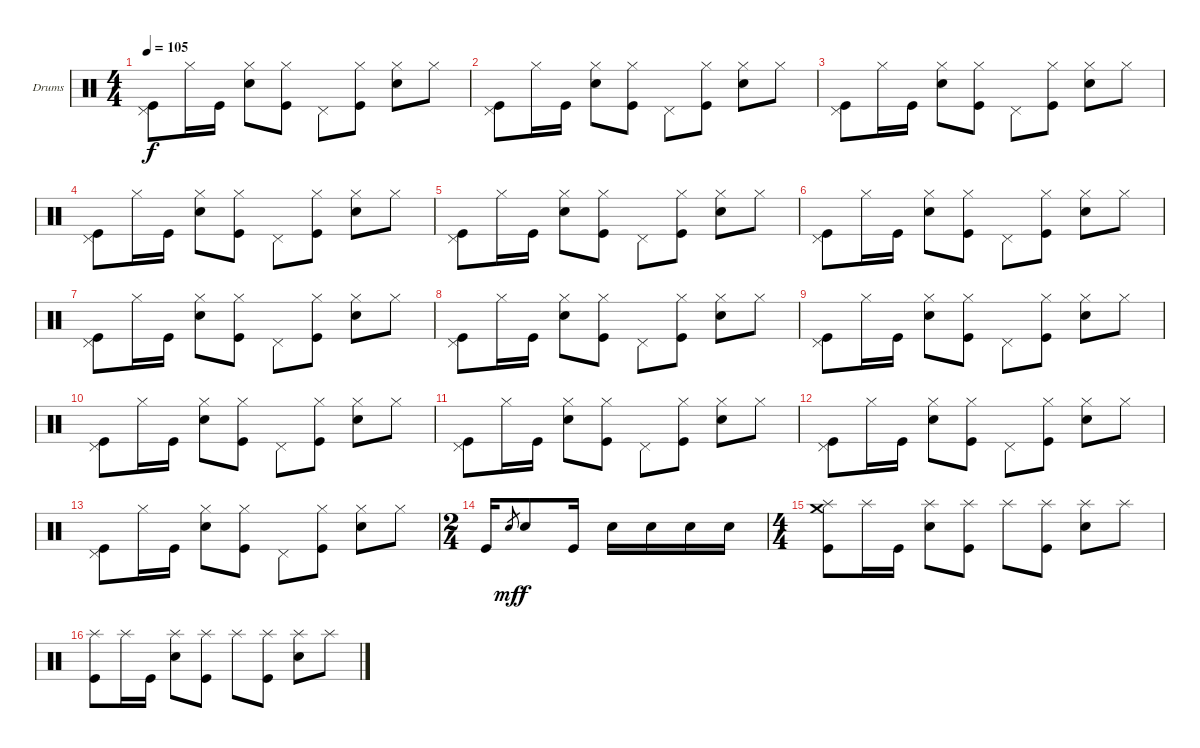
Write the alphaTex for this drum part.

\defaultSystemsLayout 4
\bracketExtendMode nobrackets
\firstSystemTrackNameOrientation horizontal
\otherSystemsTrackNameOrientation horizontal
\track ("Dave Krusen" "Drums") {instrument percussion}
\staff {score}
\articulation defaults
\ts (4 4)
\tempo 105
\clef neutral
\ks c
("Kick (hit)" "Pedal Hi-Hat (hit)").8{dy f} "Hi-Hat (closed)".16 "Kick (hit)".16 ("Snare (hit) 2" "Hi-Hat (closed)").8 ("Kick (hit)" "Hi-Hat (closed)").8 "Pedal Hi-Hat (hit)".8 ("Kick (hit)" "Hi-Hat (closed)").8 ("Snare (hit) 2" "Hi-Hat (closed)").8 "Hi-Hat (closed)".8 |
("Kick (hit)" "Pedal Hi-Hat (hit)").8 "Hi-Hat (closed)".16 "Kick (hit)".16 ("Snare (hit) 2" "Hi-Hat (closed)").8 ("Kick (hit)" "Hi-Hat (closed)").8 "Pedal Hi-Hat (hit)".8 ("Kick (hit)" "Hi-Hat (closed)").8 ("Snare (hit) 2" "Hi-Hat (closed)").8 "Hi-Hat (closed)".8 |
("Kick (hit)" "Pedal Hi-Hat (hit)").8 "Hi-Hat (closed)".16 "Kick (hit)".16 ("Snare (hit) 2" "Hi-Hat (closed)").8 ("Kick (hit)" "Hi-Hat (closed)").8 "Pedal Hi-Hat (hit)".8 ("Kick (hit)" "Hi-Hat (closed)").8 ("Snare (hit) 2" "Hi-Hat (closed)").8 "Hi-Hat (closed)".8 |
("Kick (hit)" "Pedal Hi-Hat (hit)").8 "Hi-Hat (closed)".16 "Kick (hit)".16 ("Snare (hit) 2" "Hi-Hat (closed)").8 ("Kick (hit)" "Hi-Hat (closed)").8 "Pedal Hi-Hat (hit)".8 ("Kick (hit)" "Hi-Hat (closed)").8 ("Snare (hit) 2" "Hi-Hat (closed)").8 "Hi-Hat (closed)".8 |
("Kick (hit)" "Pedal Hi-Hat (hit)").8 "Hi-Hat (closed)".16 "Kick (hit)".16 ("Snare (hit) 2" "Hi-Hat (closed)").8 ("Kick (hit)" "Hi-Hat (closed)").8 "Pedal Hi-Hat (hit)".8 ("Kick (hit)" "Hi-Hat (closed)").8 ("Snare (hit) 2" "Hi-Hat (closed)").8 "Hi-Hat (closed)".8 |
("Kick (hit)" "Pedal Hi-Hat (hit)").8 "Hi-Hat (closed)".16 "Kick (hit)".16 ("Snare (hit) 2" "Hi-Hat (closed)").8 ("Kick (hit)" "Hi-Hat (closed)").8 "Pedal Hi-Hat (hit)".8 ("Kick (hit)" "Hi-Hat (closed)").8 ("Snare (hit) 2" "Hi-Hat (closed)").8 "Hi-Hat (closed)".8 |
("Kick (hit)" "Pedal Hi-Hat (hit)").8 "Hi-Hat (closed)".16 "Kick (hit)".16 ("Snare (hit) 2" "Hi-Hat (closed)").8 ("Kick (hit)" "Hi-Hat (closed)").8 "Pedal Hi-Hat (hit)".8 ("Kick (hit)" "Hi-Hat (closed)").8 ("Snare (hit) 2" "Hi-Hat (closed)").8 "Hi-Hat (closed)".8 |
("Kick (hit)" "Pedal Hi-Hat (hit)").8 "Hi-Hat (closed)".16 "Kick (hit)".16 ("Snare (hit) 2" "Hi-Hat (closed)").8 ("Kick (hit)" "Hi-Hat (closed)").8 "Pedal Hi-Hat (hit)".8 ("Kick (hit)" "Hi-Hat (closed)").8 ("Snare (hit) 2" "Hi-Hat (closed)").8 "Hi-Hat (closed)".8 |
("Kick (hit)" "Pedal Hi-Hat (hit)").8 "Hi-Hat (closed)".16 "Kick (hit)".16 ("Snare (hit) 2" "Hi-Hat (closed)").8 ("Kick (hit)" "Hi-Hat (closed)").8 "Pedal Hi-Hat (hit)".8 ("Kick (hit)" "Hi-Hat (closed)").8 ("Snare (hit) 2" "Hi-Hat (closed)").8 "Hi-Hat (closed)".8 |
("Kick (hit)" "Pedal Hi-Hat (hit)").8 "Hi-Hat (closed)".16 "Kick (hit)".16 ("Snare (hit) 2" "Hi-Hat (closed)").8 ("Kick (hit)" "Hi-Hat (closed)").8 "Pedal Hi-Hat (hit)".8 ("Kick (hit)" "Hi-Hat (closed)").8 ("Snare (hit) 2" "Hi-Hat (closed)").8 "Hi-Hat (closed)".8 |
("Kick (hit)" "Pedal Hi-Hat (hit)").8 "Hi-Hat (closed)".16 "Kick (hit)".16 ("Snare (hit) 2" "Hi-Hat (closed)").8 ("Kick (hit)" "Hi-Hat (closed)").8 "Pedal Hi-Hat (hit)".8 ("Kick (hit)" "Hi-Hat (closed)").8 ("Snare (hit) 2" "Hi-Hat (closed)").8 "Hi-Hat (closed)".8 |
("Kick (hit)" "Pedal Hi-Hat (hit)").8 "Hi-Hat (closed)".16 "Kick (hit)".16 ("Snare (hit) 2" "Hi-Hat (closed)").8 ("Kick (hit)" "Hi-Hat (closed)").8 "Pedal Hi-Hat (hit)".8 ("Kick (hit)" "Hi-Hat (closed)").8 ("Snare (hit) 2" "Hi-Hat (closed)").8 "Hi-Hat (closed)".8 |
("Kick (hit)" "Pedal Hi-Hat (hit)").8 "Hi-Hat (closed)".16 "Kick (hit)".16 ("Snare (hit) 2" "Hi-Hat (closed)").8 ("Kick (hit)" "Hi-Hat (closed)").8 "Pedal Hi-Hat (hit)".8 ("Kick (hit)" "Hi-Hat (closed)").8 ("Snare (hit) 2" "Hi-Hat (closed)").8 "Hi-Hat (closed)".8 |
\ts (2 4)
"Kick (hit)".16 "Snare (hit) 2".8{gr dy mf} "Snare (hit) 2".8{dy f} "Kick (hit)".16 "Snare (hit) 2".16 "Snare (hit) 2".16 "Snare (hit) 2".16 "Snare (hit) 2".16 |
\ts (4 4)
("Crash medium (hit)" "Kick (hit)" "Splash (hit)").8 "Splash (hit)".16 "Kick (hit)".16 ("Snare (hit) 2" "Splash (hit)").8 ("Kick (hit)" "Splash (hit)").8 "Splash (hit)".8 ("Kick (hit)" "Splash (hit)").8 ("Snare (hit) 2" "Splash (hit)").8 "Splash (hit)".8 |
("Kick (hit)" "Splash (hit)").8 "Splash (hit)".16 "Kick (hit)".16 ("Snare (hit) 2" "Splash (hit)").8 ("Kick (hit)" "Splash (hit)").8 "Splash (hit)".8 ("Kick (hit)" "Splash (hit)").8 ("Snare (hit) 2" "Splash (hit)").8 "Splash (hit)".8
